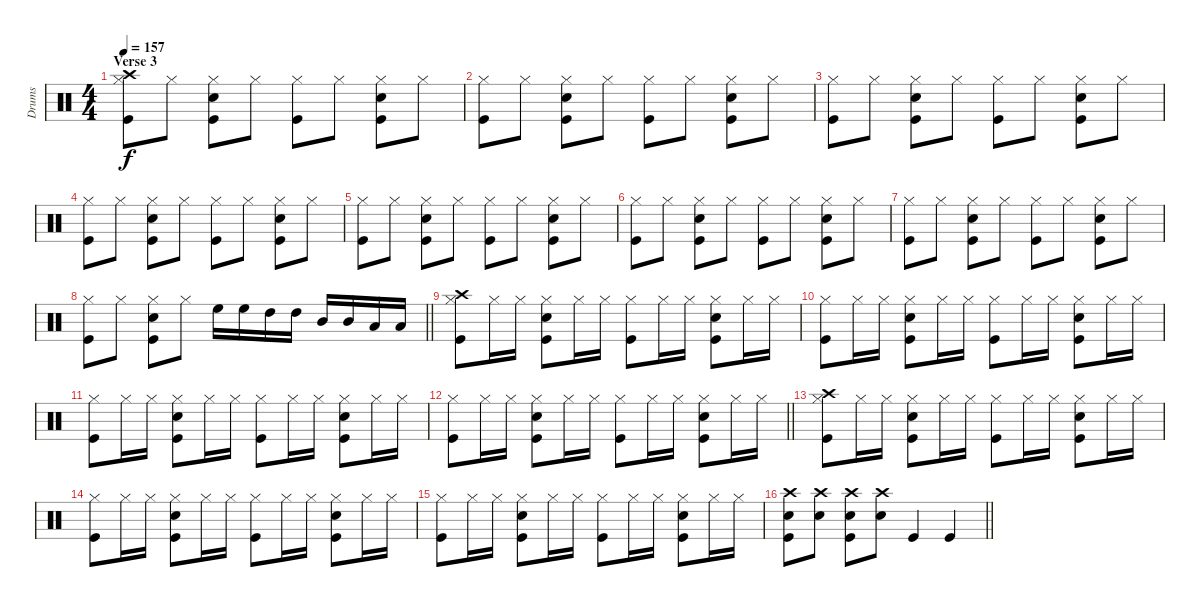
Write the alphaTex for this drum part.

\track ("Drums" "Drums") {instrument percussion}
\staff {score}
\articulation defaults
\ts (4 4)
\section ("" "Verse 3")
\tempo 157
\clef neutral
\ks c
("Hi-Hat (closed)" "Kick (hit)" "Crash high (hit)").8{dy f} "Hi-Hat (closed)".8 ("Hi-Hat (closed)" "Kick (hit)" "Snare (hit) 2").8 "Hi-Hat (closed)".8 ("Hi-Hat (closed)" "Kick (hit)").8 "Hi-Hat (closed)".8 ("Hi-Hat (closed)" "Kick (hit)" "Snare (hit) 2").8 "Hi-Hat (closed)".8 |
("Hi-Hat (closed)" "Kick (hit)").8 "Hi-Hat (closed)".8 ("Hi-Hat (closed)" "Kick (hit)" "Snare (hit) 2").8 "Hi-Hat (closed)".8 ("Hi-Hat (closed)" "Kick (hit)").8 "Hi-Hat (closed)".8 ("Hi-Hat (closed)" "Kick (hit)" "Snare (hit) 2").8 "Hi-Hat (closed)".8 |
("Hi-Hat (closed)" "Kick (hit)").8 "Hi-Hat (closed)".8 ("Hi-Hat (closed)" "Kick (hit)" "Snare (hit) 2").8 "Hi-Hat (closed)".8 ("Hi-Hat (closed)" "Kick (hit)").8 "Hi-Hat (closed)".8 ("Hi-Hat (closed)" "Kick (hit)" "Snare (hit) 2").8 "Hi-Hat (closed)".8 |
("Hi-Hat (closed)" "Kick (hit)").8 "Hi-Hat (closed)".8 ("Hi-Hat (closed)" "Kick (hit)" "Snare (hit) 2").8 "Hi-Hat (closed)".8 ("Hi-Hat (closed)" "Kick (hit)").8 "Hi-Hat (closed)".8 ("Hi-Hat (closed)" "Kick (hit)" "Snare (hit) 2").8 "Hi-Hat (closed)".8 |
("Hi-Hat (closed)" "Kick (hit)").8 "Hi-Hat (closed)".8 ("Hi-Hat (closed)" "Kick (hit)" "Snare (hit) 2").8 "Hi-Hat (closed)".8 ("Hi-Hat (closed)" "Kick (hit)").8 "Hi-Hat (closed)".8 ("Hi-Hat (closed)" "Kick (hit)" "Snare (hit) 2").8 "Hi-Hat (closed)".8 |
("Hi-Hat (closed)" "Kick (hit)").8 "Hi-Hat (closed)".8 ("Hi-Hat (closed)" "Kick (hit)" "Snare (hit) 2").8 "Hi-Hat (closed)".8 ("Hi-Hat (closed)" "Kick (hit)").8 "Hi-Hat (closed)".8 ("Hi-Hat (closed)" "Kick (hit)" "Snare (hit) 2").8 "Hi-Hat (closed)".8 |
("Hi-Hat (closed)" "Kick (hit)").8 "Hi-Hat (closed)".8 ("Hi-Hat (closed)" "Kick (hit)" "Snare (hit) 2").8 "Hi-Hat (closed)".8 ("Hi-Hat (closed)" "Kick (hit)").8 "Hi-Hat (closed)".8 ("Hi-Hat (closed)" "Kick (hit)" "Snare (hit) 2").8 "Hi-Hat (closed)".8 |
\barLineRight lightlight
("Hi-Hat (closed)" "Kick (hit)").8 "Hi-Hat (closed)".8 ("Hi-Hat (closed)" "Kick (hit)" "Snare (hit) 2").8 "Hi-Hat (closed)".8 "High Floor Tom (hit)".16 "High Floor Tom (hit)".16 "High Tom (hit)".16 "High Tom (hit)".16 "Mid Tom (hit)".16 "Mid Tom (hit)".16 "Low Tom (hit)".16 "Low Tom (hit)".16 |
("Hi-Hat (closed)" "Kick (hit)" "Crash high (hit)").8 "Hi-Hat (closed)".16 "Hi-Hat (closed)".16 ("Hi-Hat (closed)" "Kick (hit)" "Snare (hit) 2").8 "Hi-Hat (closed)".16 "Hi-Hat (closed)".16 ("Hi-Hat (closed)" "Kick (hit)").8 "Hi-Hat (closed)".16 "Hi-Hat (closed)".16 ("Hi-Hat (closed)" "Kick (hit)" "Snare (hit) 2").8 "Hi-Hat (closed)".16 "Hi-Hat (closed)".16 |
("Hi-Hat (closed)" "Kick (hit)").8 "Hi-Hat (closed)".16 "Hi-Hat (closed)".16 ("Hi-Hat (closed)" "Kick (hit)" "Snare (hit) 2").8 "Hi-Hat (closed)".16 "Hi-Hat (closed)".16 ("Hi-Hat (closed)" "Kick (hit)").8 "Hi-Hat (closed)".16 "Hi-Hat (closed)".16 ("Hi-Hat (closed)" "Kick (hit)" "Snare (hit) 2").8 "Hi-Hat (closed)".16 "Hi-Hat (closed)".16 |
("Hi-Hat (closed)" "Kick (hit)").8 "Hi-Hat (closed)".16 "Hi-Hat (closed)".16 ("Hi-Hat (closed)" "Kick (hit)" "Snare (hit) 2").8 "Hi-Hat (closed)".16 "Hi-Hat (closed)".16 ("Hi-Hat (closed)" "Kick (hit)").8 "Hi-Hat (closed)".16 "Hi-Hat (closed)".16 ("Hi-Hat (closed)" "Kick (hit)" "Snare (hit) 2").8 "Hi-Hat (closed)".16 "Hi-Hat (closed)".16 |
\barLineRight lightlight
("Hi-Hat (closed)" "Kick (hit)").8 "Hi-Hat (closed)".16 "Hi-Hat (closed)".16 ("Hi-Hat (closed)" "Kick (hit)" "Snare (hit) 2").8 "Hi-Hat (closed)".16 "Hi-Hat (closed)".16 ("Hi-Hat (closed)" "Kick (hit)").8 "Hi-Hat (closed)".16 "Hi-Hat (closed)".16 ("Hi-Hat (closed)" "Kick (hit)" "Snare (hit) 2").8 "Hi-Hat (closed)".16 "Hi-Hat (closed)".16 |
("Hi-Hat (closed)" "Kick (hit)" "Crash high (hit)").8 "Hi-Hat (closed)".16 "Hi-Hat (closed)".16 ("Hi-Hat (closed)" "Kick (hit)" "Snare (hit) 2").8 "Hi-Hat (closed)".16 "Hi-Hat (closed)".16 ("Hi-Hat (closed)" "Kick (hit)").8 "Hi-Hat (closed)".16 "Hi-Hat (closed)".16 ("Hi-Hat (closed)" "Kick (hit)" "Snare (hit) 2").8 "Hi-Hat (closed)".16 "Hi-Hat (closed)".16 |
("Hi-Hat (closed)" "Kick (hit)").8 "Hi-Hat (closed)".16 "Hi-Hat (closed)".16 ("Hi-Hat (closed)" "Kick (hit)" "Snare (hit) 2").8 "Hi-Hat (closed)".16 "Hi-Hat (closed)".16 ("Hi-Hat (closed)" "Kick (hit)").8 "Hi-Hat (closed)".16 "Hi-Hat (closed)".16 ("Hi-Hat (closed)" "Kick (hit)" "Snare (hit) 2").8 "Hi-Hat (closed)".16 "Hi-Hat (closed)".16 |
("Hi-Hat (closed)" "Kick (hit)").8 "Hi-Hat (closed)".16 "Hi-Hat (closed)".16 ("Hi-Hat (closed)" "Kick (hit)" "Snare (hit) 2").8 "Hi-Hat (closed)".16 "Hi-Hat (closed)".16 ("Hi-Hat (closed)" "Kick (hit)").8 "Hi-Hat (closed)".16 "Hi-Hat (closed)".16 ("Hi-Hat (closed)" "Kick (hit)" "Snare (hit) 2").8 "Hi-Hat (closed)".16 "Hi-Hat (closed)".16 |
\barLineRight lightlight
("Crash high (hit)" "Kick (hit)" "Snare (hit) 2").8 ("Crash high (hit)" "Snare (hit) 2").8 ("Crash high (hit)" "Kick (hit)" "Snare (hit) 2").8 ("Crash high (hit)" "Snare (hit) 2").8 "Kick (hit)".4 "Kick (hit)".4
